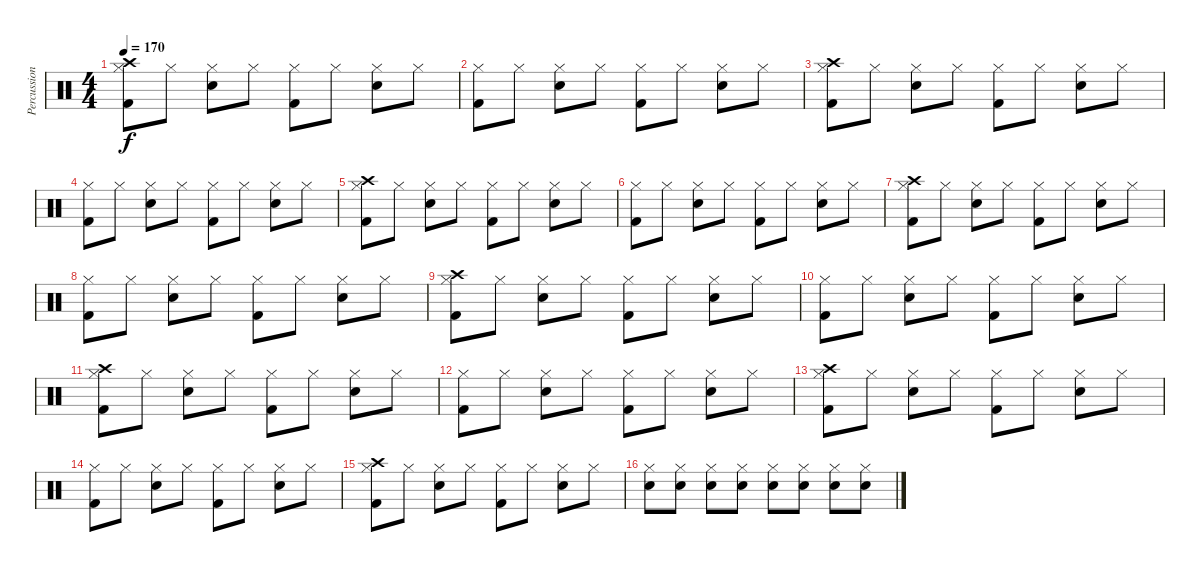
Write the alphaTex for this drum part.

\track ("Percussion" "Percussion") {instrument percussion}
\staff {score}
\articulation defaults
\ts (4 4)
\tempo 170
\clef neutral
\ks c
("Hi-Hat (closed)" "Crash high (hit)" "Kick (hit) 2").8{dy f} "Hi-Hat (closed)".8 ("Hi-Hat (closed)" "Snare (hit) 2").8 "Hi-Hat (closed)".8 ("Hi-Hat (closed)" "Kick (hit) 2").8 "Hi-Hat (closed)".8 ("Hi-Hat (closed)" "Snare (hit) 2").8 "Hi-Hat (closed)".8 |
("Hi-Hat (closed)" "Kick (hit) 2").8 "Hi-Hat (closed)".8 ("Hi-Hat (closed)" "Snare (hit) 2").8 "Hi-Hat (closed)".8 ("Hi-Hat (closed)" "Kick (hit) 2").8 "Hi-Hat (closed)".8 ("Hi-Hat (closed)" "Snare (hit) 2").8 "Hi-Hat (closed)".8 |
("Hi-Hat (closed)" "Crash high (hit)" "Kick (hit) 2").8 "Hi-Hat (closed)".8 ("Hi-Hat (closed)" "Snare (hit) 2").8 "Hi-Hat (closed)".8 ("Hi-Hat (closed)" "Kick (hit) 2").8 "Hi-Hat (closed)".8 ("Hi-Hat (closed)" "Snare (hit) 2").8 "Hi-Hat (closed)".8 |
("Hi-Hat (closed)" "Kick (hit) 2").8 "Hi-Hat (closed)".8 ("Hi-Hat (closed)" "Snare (hit) 2").8 "Hi-Hat (closed)".8 ("Hi-Hat (closed)" "Kick (hit) 2").8 "Hi-Hat (closed)".8 ("Hi-Hat (closed)" "Snare (hit) 2").8 "Hi-Hat (closed)".8 |
("Hi-Hat (closed)" "Crash high (hit)" "Kick (hit) 2").8 "Hi-Hat (closed)".8 ("Hi-Hat (closed)" "Snare (hit) 2").8 "Hi-Hat (closed)".8 ("Hi-Hat (closed)" "Kick (hit) 2").8 "Hi-Hat (closed)".8 ("Hi-Hat (closed)" "Snare (hit) 2").8 "Hi-Hat (closed)".8 |
("Hi-Hat (closed)" "Kick (hit) 2").8 "Hi-Hat (closed)".8 ("Hi-Hat (closed)" "Snare (hit) 2").8 "Hi-Hat (closed)".8 ("Hi-Hat (closed)" "Kick (hit) 2").8 "Hi-Hat (closed)".8 ("Hi-Hat (closed)" "Snare (hit) 2").8 "Hi-Hat (closed)".8 |
("Hi-Hat (closed)" "Crash high (hit)" "Kick (hit) 2").8 "Hi-Hat (closed)".8 ("Hi-Hat (closed)" "Snare (hit) 2").8 "Hi-Hat (closed)".8 ("Hi-Hat (closed)" "Kick (hit) 2").8 "Hi-Hat (closed)".8 ("Hi-Hat (closed)" "Snare (hit) 2").8 "Hi-Hat (closed)".8 |
("Hi-Hat (closed)" "Kick (hit) 2").8 "Hi-Hat (closed)".8 ("Hi-Hat (closed)" "Snare (hit) 2").8 "Hi-Hat (closed)".8 ("Hi-Hat (closed)" "Kick (hit) 2").8 "Hi-Hat (closed)".8 ("Hi-Hat (closed)" "Snare (hit) 2").8 "Hi-Hat (closed)".8 |
("Hi-Hat (closed)" "Crash high (hit)" "Kick (hit) 2").8 "Hi-Hat (closed)".8 ("Hi-Hat (closed)" "Snare (hit) 2").8 "Hi-Hat (closed)".8 ("Hi-Hat (closed)" "Kick (hit) 2").8 "Hi-Hat (closed)".8 ("Hi-Hat (closed)" "Snare (hit) 2").8 "Hi-Hat (closed)".8 |
("Hi-Hat (closed)" "Kick (hit) 2").8 "Hi-Hat (closed)".8 ("Hi-Hat (closed)" "Snare (hit) 2").8 "Hi-Hat (closed)".8 ("Hi-Hat (closed)" "Kick (hit) 2").8 "Hi-Hat (closed)".8 ("Hi-Hat (closed)" "Snare (hit) 2").8 "Hi-Hat (closed)".8 |
("Hi-Hat (closed)" "Crash high (hit)" "Kick (hit) 2").8 "Hi-Hat (closed)".8 ("Hi-Hat (closed)" "Snare (hit) 2").8 "Hi-Hat (closed)".8 ("Hi-Hat (closed)" "Kick (hit) 2").8 "Hi-Hat (closed)".8 ("Hi-Hat (closed)" "Snare (hit) 2").8 "Hi-Hat (closed)".8 |
("Hi-Hat (closed)" "Kick (hit) 2").8 "Hi-Hat (closed)".8 ("Hi-Hat (closed)" "Snare (hit) 2").8 "Hi-Hat (closed)".8 ("Hi-Hat (closed)" "Kick (hit) 2").8 "Hi-Hat (closed)".8 ("Hi-Hat (closed)" "Snare (hit) 2").8 "Hi-Hat (closed)".8 |
("Hi-Hat (closed)" "Crash high (hit)" "Kick (hit) 2").8 "Hi-Hat (closed)".8 ("Hi-Hat (closed)" "Snare (hit) 2").8 "Hi-Hat (closed)".8 ("Hi-Hat (closed)" "Kick (hit) 2").8 "Hi-Hat (closed)".8 ("Hi-Hat (closed)" "Snare (hit) 2").8 "Hi-Hat (closed)".8 |
("Hi-Hat (closed)" "Kick (hit) 2").8 "Hi-Hat (closed)".8 ("Hi-Hat (closed)" "Snare (hit) 2").8 "Hi-Hat (closed)".8 ("Hi-Hat (closed)" "Kick (hit) 2").8 "Hi-Hat (closed)".8 ("Hi-Hat (closed)" "Snare (hit) 2").8 "Hi-Hat (closed)".8 |
("Hi-Hat (closed)" "Crash high (hit)" "Kick (hit) 2").8 "Hi-Hat (closed)".8 ("Hi-Hat (closed)" "Snare (hit) 2").8 "Hi-Hat (closed)".8 ("Hi-Hat (closed)" "Kick (hit) 2").8 "Hi-Hat (closed)".8 ("Hi-Hat (closed)" "Snare (hit) 2").8 "Hi-Hat (closed)".8 |
("Hi-Hat (closed)" "Snare (hit) 2").8 ("Hi-Hat (closed)" "Snare (hit) 2").8 ("Hi-Hat (closed)" "Snare (hit) 2").8 ("Hi-Hat (closed)" "Snare (hit) 2").8 ("Hi-Hat (closed)" "Snare (hit) 2").8 ("Hi-Hat (closed)" "Snare (hit) 2").8 ("Hi-Hat (closed)" "Snare (hit) 2").8 ("Hi-Hat (closed)" "Snare (hit) 2").8
